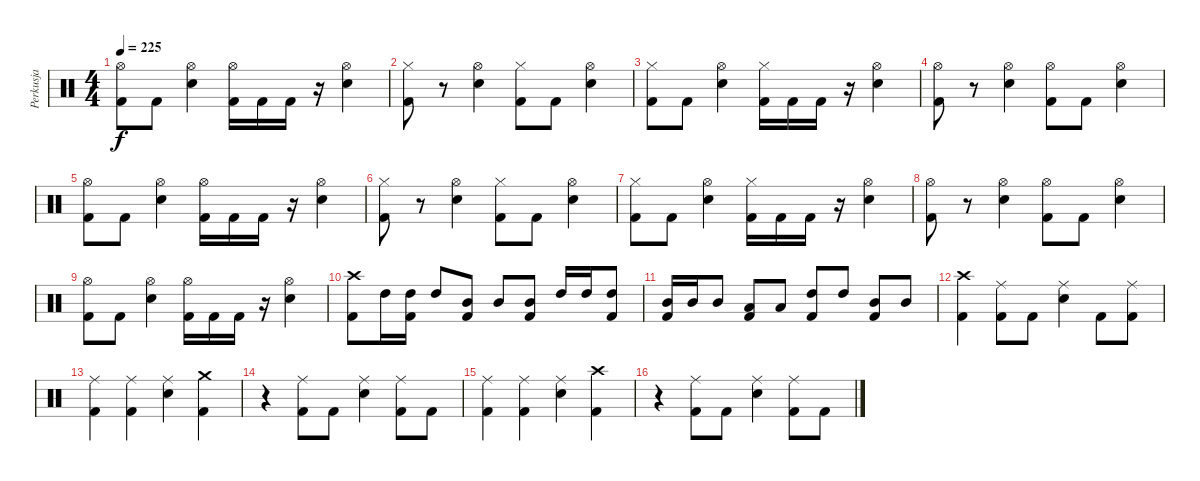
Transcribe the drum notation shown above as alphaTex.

\track ("Perkusja" "Perkusja") {instrument percussion}
\staff {score}
\articulation defaults
\ts (4 4)
\tempo 225
\clef neutral
\ks c
("Hi-Hat (open)" "Kick (hit) 2").8{dy f} "Kick (hit) 2".8 ("Hi-Hat (open)" "Snare (hit) 2").4 ("Hi-Hat (open)" "Kick (hit) 2").16 "Kick (hit) 2".16 "Kick (hit) 2".16 r.16 ("Hi-Hat (open)" "Snare (hit) 2").4 |
("Hi-Hat (closed)" "Kick (hit) 2").8 r.8 ("Hi-Hat (open)" "Snare (hit) 2").4 ("Hi-Hat (closed)" "Kick (hit) 2").8 "Kick (hit) 2".8 ("Hi-Hat (open)" "Snare (hit) 2").4 |
("Hi-Hat (closed)" "Kick (hit) 2").8 "Kick (hit) 2".8 ("Hi-Hat (open)" "Snare (hit) 2").4 ("Hi-Hat (closed)" "Kick (hit) 2").16 "Kick (hit) 2".16 "Kick (hit) 2".16 r.16 ("Hi-Hat (open)" "Snare (hit) 2").4 |
("Hi-Hat (open)" "Kick (hit) 2").8 r.8 ("Hi-Hat (open)" "Snare (hit) 2").4 ("Hi-Hat (open)" "Kick (hit) 2").8 "Kick (hit) 2".8 ("Hi-Hat (open)" "Snare (hit) 2").4 |
("Hi-Hat (open)" "Kick (hit) 2").8 "Kick (hit) 2".8 ("Hi-Hat (open)" "Snare (hit) 2").4 ("Hi-Hat (open)" "Kick (hit) 2").16 "Kick (hit) 2".16 "Kick (hit) 2".16 r.16 ("Hi-Hat (open)" "Snare (hit) 2").4 |
("Hi-Hat (closed)" "Kick (hit) 2").8 r.8 ("Hi-Hat (open)" "Snare (hit) 2").4 ("Hi-Hat (closed)" "Kick (hit) 2").8 "Kick (hit) 2".8 ("Hi-Hat (open)" "Snare (hit) 2").4 |
("Hi-Hat (closed)" "Kick (hit) 2").8 "Kick (hit) 2".8 ("Hi-Hat (open)" "Snare (hit) 2").4 ("Hi-Hat (closed)" "Kick (hit) 2").16 "Kick (hit) 2".16 "Kick (hit) 2".16 r.16 ("Hi-Hat (open)" "Snare (hit) 2").4 |
("Hi-Hat (open)" "Kick (hit) 2").8 r.8 ("Hi-Hat (open)" "Snare (hit) 2").4 ("Hi-Hat (open)" "Kick (hit) 2").8 "Kick (hit) 2".8 ("Hi-Hat (open)" "Snare (hit) 2").4 |
("Hi-Hat (open)" "Kick (hit) 2").8 "Kick (hit) 2".8 ("Hi-Hat (open)" "Snare (hit) 2").4 ("Hi-Hat (open)" "Kick (hit) 2").16 "Kick (hit) 2".16 "Kick (hit) 2".16 r.16 ("Hi-Hat (open)" "Snare (hit) 2").4 |
("Crash high (hit)" "Kick (hit) 2").8 "High Tom (hit)".16 ("High Tom (hit)" "Kick (hit) 2").16 "High Tom (hit)".8 ("Mid Tom (hit)" "Kick (hit) 2").8 "Mid Tom (hit)".8 ("Mid Tom (hit)" "Kick (hit) 2").8 "High Tom (hit)".16 "High Tom (hit)".16 ("High Tom (hit)" "Kick (hit) 2").8 |
("Mid Tom (hit)" "Kick (hit) 2").16 "Mid Tom (hit)".16 "Mid Tom (hit)".8 ("Low Tom (hit)" "Kick (hit) 2").8 "Low Tom (hit)".8 ("High Tom (hit)" "Kick (hit) 2").8 "High Tom (hit)".8 ("Mid Tom (hit)" "Kick (hit) 2").8 "Mid Tom (hit)".8 |
("Crash high (hit)" "Kick (hit) 2").4 ("Ride (middle)" "Kick (hit) 2").8 "Kick (hit) 2".8 ("Ride (middle)" "Snare (hit) 2").4 "Kick (hit) 2".8 ("Ride (middle)" "Kick (hit) 2").8 |
("Ride (middle)" "Kick (hit) 2").4 ("Ride (middle)" "Kick (hit) 2").4 ("Ride (middle)" "Snare (hit) 2").4 ("Crash medium (hit)" "Kick (hit) 2").4 |
r.4 ("Ride (middle)" "Kick (hit) 2").8 "Kick (hit) 2".8 ("Ride (middle)" "Snare (hit) 2").4 ("Ride (middle)" "Kick (hit) 2").8 "Kick (hit) 2".8 |
("Ride (middle)" "Kick (hit) 2").4 ("Ride (middle)" "Kick (hit) 2").4 ("Ride (middle)" "Snare (hit) 2").4 ("Crash high (hit)" "Kick (hit) 2").4 |
r.4 ("Ride (middle)" "Kick (hit) 2").8 "Kick (hit) 2".8 ("Ride (middle)" "Snare (hit) 2").4 ("Ride (middle)" "Kick (hit) 2").8 "Kick (hit) 2".8
